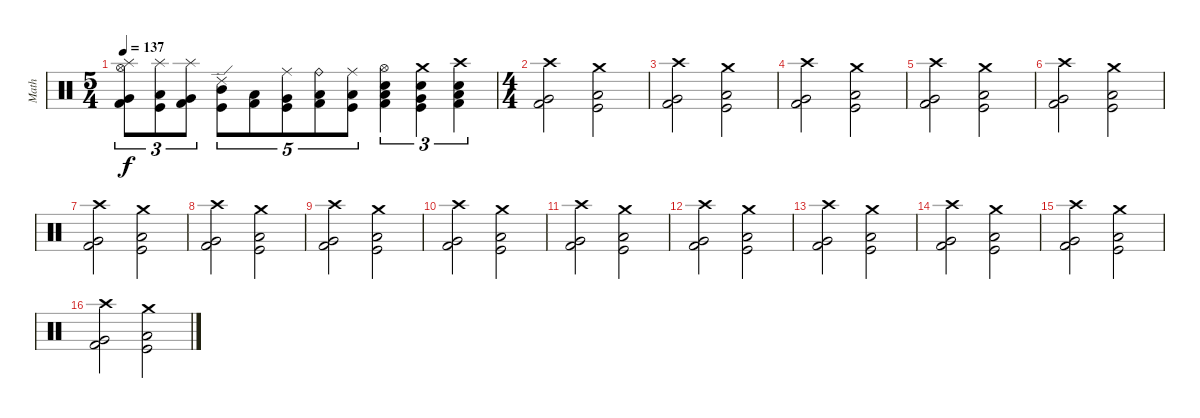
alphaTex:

\track ("Math" "Math") {instrument percussion}
\staff {score}
\articulation defaults
\ts (5 4)
\tempo 137
\clef neutral
\ks c
("Splash (hit)" "Hi-Hat (open)" "Very Low Tom (hit)" "Kick (hit) 2").8{tu (3 2) dy f} ("Splash (hit)" "Low Tom (hit)" "Kick (hit)").8{tu (3 2)} ("Splash (hit)" "Very Low Tom (hit)" "Kick (hit) 2").8{tu (3 2)} ("Ride (edge) 2" "Mid Tom (hit)" "Kick (hit)").8{tu (5 4)} ("Low Tom (hit)" "Kick (hit) 2").8{tu (5 4)} ("Ride (middle)" "Very Low Tom (hit)" "Kick (hit)").8{tu (5 4)} ("Ride (bell)" "Low Tom (hit)" "Kick (hit) 2").8{tu (5 4)} ("Ride (middle)" "Low Floor Tom (hit)" "Kick (hit)").8{tu (5 4)} ("Hi-Hat (open)" "Electric Snare (hit)" "Low Tom (hit)" "Kick (hit) 2").4{tu (3 2)} ("Crash medium (hit)" "Electric Snare (hit)" "Very Low Tom (hit)" "Kick (hit)").4{tu (3 2)} ("Crash high (hit)" "Electric Snare (hit)" "Low Floor Tom (hit)" "Kick (hit) 2").4{tu (3 2)} |
\ts (4 4)
("Crash high (hit)" "Very Low Tom (hit)" "Kick (hit) 2").2 ("Crash medium (hit)" "Low Tom (hit)" "Kick (hit)").2 |
("Crash high (hit)" "Very Low Tom (hit)" "Kick (hit) 2").2 ("Crash medium (hit)" "Low Tom (hit)" "Kick (hit)").2 |
("Crash high (hit)" "Very Low Tom (hit)" "Kick (hit) 2").2 ("Crash medium (hit)" "Low Tom (hit)" "Kick (hit)").2 |
("Crash high (hit)" "Very Low Tom (hit)" "Kick (hit) 2").2 ("Crash medium (hit)" "Low Tom (hit)" "Kick (hit)").2 |
("Crash high (hit)" "Very Low Tom (hit)" "Kick (hit) 2").2 ("Crash medium (hit)" "Low Tom (hit)" "Kick (hit)").2 |
("Crash high (hit)" "Very Low Tom (hit)" "Kick (hit) 2").2 ("Crash medium (hit)" "Low Tom (hit)" "Kick (hit)").2 |
("Crash high (hit)" "Very Low Tom (hit)" "Kick (hit) 2").2 ("Crash medium (hit)" "Low Tom (hit)" "Kick (hit)").2 |
("Crash high (hit)" "Very Low Tom (hit)" "Kick (hit) 2").2 ("Crash medium (hit)" "Low Tom (hit)" "Kick (hit)").2 |
("Crash high (hit)" "Very Low Tom (hit)" "Kick (hit) 2").2 ("Crash medium (hit)" "Low Tom (hit)" "Kick (hit)").2 |
("Crash high (hit)" "Very Low Tom (hit)" "Kick (hit) 2").2 ("Crash medium (hit)" "Low Tom (hit)" "Kick (hit)").2 |
("Crash high (hit)" "Very Low Tom (hit)" "Kick (hit) 2").2 ("Crash medium (hit)" "Low Tom (hit)" "Kick (hit)").2 |
("Crash high (hit)" "Very Low Tom (hit)" "Kick (hit) 2").2 ("Crash medium (hit)" "Low Tom (hit)" "Kick (hit)").2 |
("Crash high (hit)" "Very Low Tom (hit)" "Kick (hit) 2").2 ("Crash medium (hit)" "Low Tom (hit)" "Kick (hit)").2 |
("Crash high (hit)" "Very Low Tom (hit)" "Kick (hit) 2").2 ("Crash medium (hit)" "Low Tom (hit)" "Kick (hit)").2 |
("Crash high (hit)" "Very Low Tom (hit)" "Kick (hit) 2").2 ("Crash medium (hit)" "Low Tom (hit)" "Kick (hit)").2
